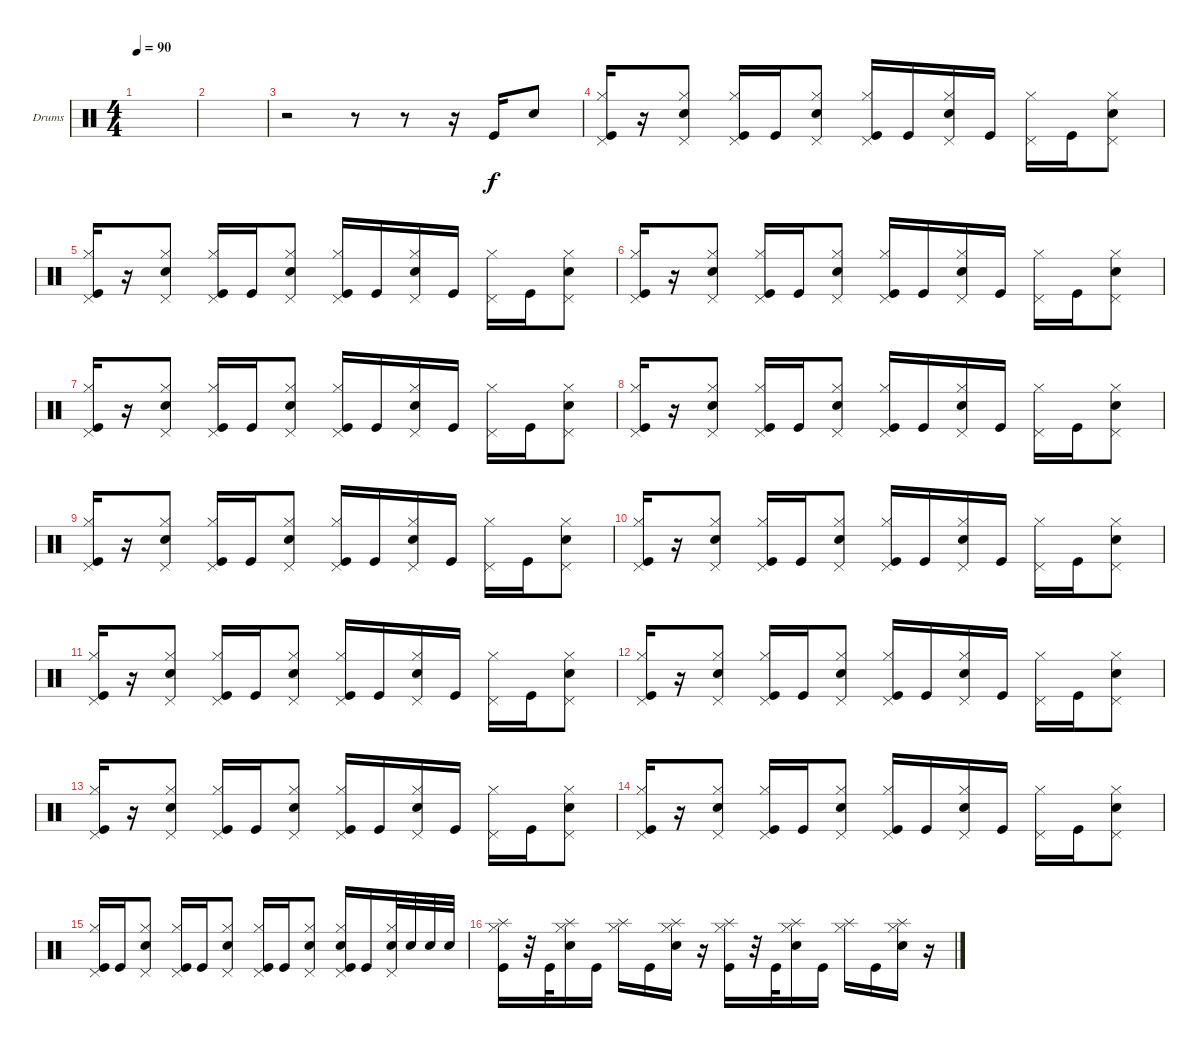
\defaultSystemsLayout 4
\bracketExtendMode groupsimilarinstruments
\firstSystemTrackNameOrientation horizontal
\otherSystemsTrackNameOrientation horizontal
\track ("Drumkit" "Drums") {instrument percussion}
\staff {score}
\articulation defaults
\ts (4 4)
\tempo 90
\clef neutral
\ks c
|
|
r.2 r.8 r.8 r.16 "Kick (hit)".16 "Snare (hit) 2".8 |
("Hi-Hat (closed)" "Kick (hit)" "Pedal Hi-Hat (hit)").16 r.16 ("Hi-Hat (closed)" "Snare (hit) 2" "Pedal Hi-Hat (hit)").8 ("Hi-Hat (closed)" "Kick (hit)" "Pedal Hi-Hat (hit)").16 "Kick (hit)".16 ("Hi-Hat (closed)" "Snare (hit) 2" "Pedal Hi-Hat (hit)").8 ("Hi-Hat (closed)" "Kick (hit)" "Pedal Hi-Hat (hit)").16 "Kick (hit)".16 ("Hi-Hat (closed)" "Snare (hit) 2" "Pedal Hi-Hat (hit)").16 "Kick (hit)".16 ("Hi-Hat (closed)" "Pedal Hi-Hat (hit)").16 "Kick (hit)".16 ("Hi-Hat (closed)" "Snare (hit) 2" "Pedal Hi-Hat (hit)").8 |
("Hi-Hat (closed)" "Kick (hit)" "Pedal Hi-Hat (hit)").16 r.16 ("Hi-Hat (closed)" "Snare (hit) 2" "Pedal Hi-Hat (hit)").8 ("Hi-Hat (closed)" "Kick (hit)" "Pedal Hi-Hat (hit)").16 "Kick (hit)".16 ("Hi-Hat (closed)" "Snare (hit) 2" "Pedal Hi-Hat (hit)").8 ("Hi-Hat (closed)" "Kick (hit)" "Pedal Hi-Hat (hit)").16 "Kick (hit)".16 ("Hi-Hat (closed)" "Snare (hit) 2" "Pedal Hi-Hat (hit)").16 "Kick (hit)".16 ("Hi-Hat (closed)" "Pedal Hi-Hat (hit)").16 "Kick (hit)".16 ("Hi-Hat (closed)" "Snare (hit) 2" "Pedal Hi-Hat (hit)").8 |
("Hi-Hat (closed)" "Kick (hit)" "Pedal Hi-Hat (hit)").16 r.16 ("Hi-Hat (closed)" "Snare (hit) 2" "Pedal Hi-Hat (hit)").8 ("Hi-Hat (closed)" "Kick (hit)" "Pedal Hi-Hat (hit)").16 "Kick (hit)".16 ("Hi-Hat (closed)" "Snare (hit) 2" "Pedal Hi-Hat (hit)").8 ("Hi-Hat (closed)" "Kick (hit)" "Pedal Hi-Hat (hit)").16 "Kick (hit)".16 ("Hi-Hat (closed)" "Snare (hit) 2" "Pedal Hi-Hat (hit)").16 "Kick (hit)".16 ("Hi-Hat (closed)" "Pedal Hi-Hat (hit)").16 "Kick (hit)".16 ("Hi-Hat (closed)" "Snare (hit) 2" "Pedal Hi-Hat (hit)").8 |
("Hi-Hat (closed)" "Kick (hit)" "Pedal Hi-Hat (hit)").16 r.16 ("Hi-Hat (closed)" "Snare (hit) 2" "Pedal Hi-Hat (hit)").8 ("Hi-Hat (closed)" "Kick (hit)" "Pedal Hi-Hat (hit)").16 "Kick (hit)".16 ("Hi-Hat (closed)" "Snare (hit) 2" "Pedal Hi-Hat (hit)").8 ("Hi-Hat (closed)" "Kick (hit)" "Pedal Hi-Hat (hit)").16 "Kick (hit)".16 ("Hi-Hat (closed)" "Snare (hit) 2" "Pedal Hi-Hat (hit)").16 "Kick (hit)".16 ("Hi-Hat (closed)" "Pedal Hi-Hat (hit)").16 "Kick (hit)".16 ("Hi-Hat (closed)" "Snare (hit) 2" "Pedal Hi-Hat (hit)").8 |
("Hi-Hat (closed)" "Kick (hit)" "Pedal Hi-Hat (hit)").16 r.16 ("Hi-Hat (closed)" "Snare (hit) 2" "Pedal Hi-Hat (hit)").8 ("Hi-Hat (closed)" "Kick (hit)" "Pedal Hi-Hat (hit)").16 "Kick (hit)".16 ("Hi-Hat (closed)" "Snare (hit) 2" "Pedal Hi-Hat (hit)").8 ("Hi-Hat (closed)" "Kick (hit)" "Pedal Hi-Hat (hit)").16 "Kick (hit)".16 ("Hi-Hat (closed)" "Snare (hit) 2" "Pedal Hi-Hat (hit)").16 "Kick (hit)".16 ("Hi-Hat (closed)" "Pedal Hi-Hat (hit)").16 "Kick (hit)".16 ("Hi-Hat (closed)" "Snare (hit) 2" "Pedal Hi-Hat (hit)").8 |
("Hi-Hat (closed)" "Kick (hit)" "Pedal Hi-Hat (hit)").16 r.16 ("Hi-Hat (closed)" "Snare (hit) 2" "Pedal Hi-Hat (hit)").8 ("Hi-Hat (closed)" "Kick (hit)" "Pedal Hi-Hat (hit)").16 "Kick (hit)".16 ("Hi-Hat (closed)" "Snare (hit) 2" "Pedal Hi-Hat (hit)").8 ("Hi-Hat (closed)" "Kick (hit)" "Pedal Hi-Hat (hit)").16 "Kick (hit)".16 ("Hi-Hat (closed)" "Snare (hit) 2" "Pedal Hi-Hat (hit)").16 "Kick (hit)".16 ("Hi-Hat (closed)" "Pedal Hi-Hat (hit)").16 "Kick (hit)".16 ("Hi-Hat (closed)" "Snare (hit) 2" "Pedal Hi-Hat (hit)").8 |
("Hi-Hat (closed)" "Kick (hit)" "Pedal Hi-Hat (hit)").16 r.16 ("Hi-Hat (closed)" "Snare (hit) 2" "Pedal Hi-Hat (hit)").8 ("Hi-Hat (closed)" "Kick (hit)" "Pedal Hi-Hat (hit)").16 "Kick (hit)".16 ("Hi-Hat (closed)" "Snare (hit) 2" "Pedal Hi-Hat (hit)").8 ("Hi-Hat (closed)" "Kick (hit)" "Pedal Hi-Hat (hit)").16 "Kick (hit)".16 ("Hi-Hat (closed)" "Snare (hit) 2" "Pedal Hi-Hat (hit)").16 "Kick (hit)".16 ("Hi-Hat (closed)" "Pedal Hi-Hat (hit)").16 "Kick (hit)".16 ("Hi-Hat (closed)" "Snare (hit) 2" "Pedal Hi-Hat (hit)").8 |
("Hi-Hat (closed)" "Kick (hit)" "Pedal Hi-Hat (hit)").16 r.16 ("Hi-Hat (closed)" "Snare (hit) 2" "Pedal Hi-Hat (hit)").8 ("Hi-Hat (closed)" "Kick (hit)" "Pedal Hi-Hat (hit)").16 "Kick (hit)".16 ("Hi-Hat (closed)" "Snare (hit) 2" "Pedal Hi-Hat (hit)").8 ("Hi-Hat (closed)" "Kick (hit)" "Pedal Hi-Hat (hit)").16 "Kick (hit)".16 ("Hi-Hat (closed)" "Snare (hit) 2" "Pedal Hi-Hat (hit)").16 "Kick (hit)".16 ("Hi-Hat (closed)" "Pedal Hi-Hat (hit)").16 "Kick (hit)".16 ("Hi-Hat (closed)" "Snare (hit) 2" "Pedal Hi-Hat (hit)").8 |
("Hi-Hat (closed)" "Kick (hit)" "Pedal Hi-Hat (hit)").16 r.16 ("Hi-Hat (closed)" "Snare (hit) 2" "Pedal Hi-Hat (hit)").8 ("Hi-Hat (closed)" "Kick (hit)" "Pedal Hi-Hat (hit)").16 "Kick (hit)".16 ("Hi-Hat (closed)" "Snare (hit) 2" "Pedal Hi-Hat (hit)").8 ("Hi-Hat (closed)" "Kick (hit)" "Pedal Hi-Hat (hit)").16 "Kick (hit)".16 ("Hi-Hat (closed)" "Snare (hit) 2" "Pedal Hi-Hat (hit)").16 "Kick (hit)".16 ("Hi-Hat (closed)" "Pedal Hi-Hat (hit)").16 "Kick (hit)".16 ("Hi-Hat (closed)" "Snare (hit) 2" "Pedal Hi-Hat (hit)").8 |
("Hi-Hat (closed)" "Kick (hit)" "Pedal Hi-Hat (hit)").16 r.16 ("Hi-Hat (closed)" "Snare (hit) 2" "Pedal Hi-Hat (hit)").8 ("Hi-Hat (closed)" "Kick (hit)" "Pedal Hi-Hat (hit)").16 "Kick (hit)".16 ("Hi-Hat (closed)" "Snare (hit) 2" "Pedal Hi-Hat (hit)").8 ("Hi-Hat (closed)" "Kick (hit)" "Pedal Hi-Hat (hit)").16 "Kick (hit)".16 ("Hi-Hat (closed)" "Snare (hit) 2" "Pedal Hi-Hat (hit)").16 "Kick (hit)".16 ("Hi-Hat (closed)" "Pedal Hi-Hat (hit)").16 "Kick (hit)".16 ("Hi-Hat (closed)" "Snare (hit) 2" "Pedal Hi-Hat (hit)").8 |
("Hi-Hat (closed)" "Kick (hit)" "Pedal Hi-Hat (hit)").16 r.16 ("Hi-Hat (closed)" "Snare (hit) 2" "Pedal Hi-Hat (hit)").8 ("Hi-Hat (closed)" "Kick (hit)" "Pedal Hi-Hat (hit)").16 "Kick (hit)".16 ("Hi-Hat (closed)" "Snare (hit) 2" "Pedal Hi-Hat (hit)").8 ("Hi-Hat (closed)" "Kick (hit)" "Pedal Hi-Hat (hit)").16 "Kick (hit)".16 ("Hi-Hat (closed)" "Snare (hit) 2" "Pedal Hi-Hat (hit)").16 "Kick (hit)".16 ("Hi-Hat (closed)" "Pedal Hi-Hat (hit)").16 "Kick (hit)".16 ("Hi-Hat (closed)" "Snare (hit) 2" "Pedal Hi-Hat (hit)").8 |
("Hi-Hat (closed)" "Kick (hit)" "Pedal Hi-Hat (hit)").16 "Kick (hit)".16 ("Hi-Hat (closed)" "Snare (hit) 2" "Pedal Hi-Hat (hit)").8 ("Hi-Hat (closed)" "Kick (hit)" "Pedal Hi-Hat (hit)").16 "Kick (hit)".16 ("Hi-Hat (closed)" "Snare (hit) 2" "Pedal Hi-Hat (hit)").8 ("Hi-Hat (closed)" "Kick (hit)" "Pedal Hi-Hat (hit)").16 "Kick (hit)".16 ("Hi-Hat (closed)" "Snare (hit) 2" "Pedal Hi-Hat (hit)").8 ("Hi-Hat (closed)" "Kick (hit)" "Snare (hit) 2" "Pedal Hi-Hat (hit)").16 "Kick (hit)".16 ("Hi-Hat (closed)" "Snare (hit) 2" "Pedal Hi-Hat (hit)").32 "Snare (hit) 2".32 "Snare (hit) 2".32 "Snare (hit) 2".32 |
("Hi-Hat (closed)" "Splash (hit)" "Kick (hit)").16 r.32 "Kick (hit)".32 ("Hi-Hat (closed)" "Splash (hit)" "Snare (hit) 2").16 "Kick (hit)".16 ("Splash (hit)" "Hi-Hat (closed)").16 "Kick (hit)".16 ("Snare (hit) 2" "Hi-Hat (closed)" "Splash (hit)").16 r.16 ("Hi-Hat (closed)" "Splash (hit)" "Kick (hit)").16 r.32 "Kick (hit)".32 ("Hi-Hat (closed)" "Splash (hit)" "Snare (hit) 2").16 "Kick (hit)".16 ("Splash (hit)" "Hi-Hat (closed)").16 "Kick (hit)".16 ("Snare (hit) 2" "Hi-Hat (closed)" "Splash (hit)").16 r.16
